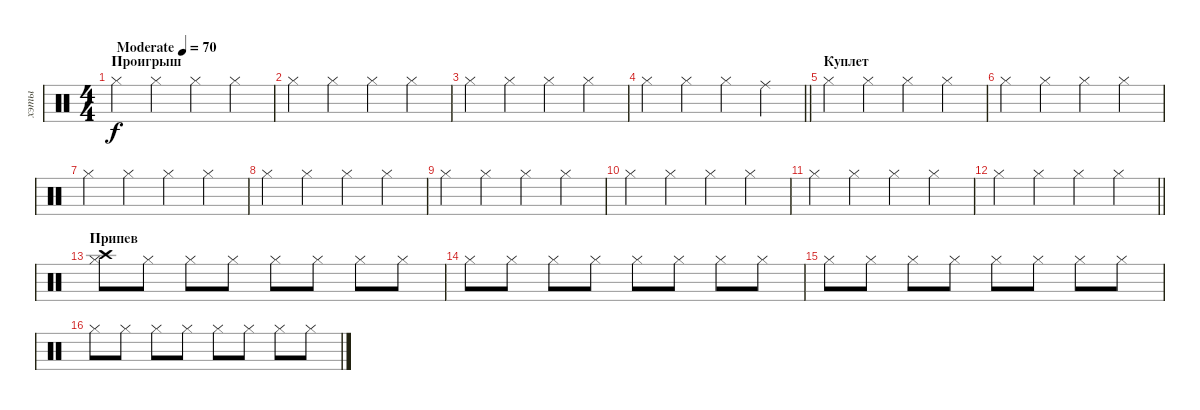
\track ("хэты" "хэты") {instrument percussion}
\staff {score}
\articulation defaults
\ts (4 4)
\section ("" "Проигрыш")
\tempo (70 "Moderate")
\clef neutral
\ks c "Hi-Hat (closed)".4{dy f} "Hi-Hat (closed)".4 "Hi-Hat (closed)".4 "Hi-Hat (closed)".4
|
"Hi-Hat (closed)".4 "Hi-Hat (closed)".4 "Hi-Hat (closed)".4 "Hi-Hat (closed)".4 |
"Hi-Hat (closed)".4 "Hi-Hat (closed)".4 "Hi-Hat (closed)".4 "Hi-Hat (closed)".4 |
\barLineRight lightlight "Hi-Hat (closed)".4 "Hi-Hat (closed)".4 "Hi-Hat (closed)".4 "Ride (middle)".4
|
\section ("" "Куплет")
"Hi-Hat (closed)".4 "Hi-Hat (closed)".4 "Hi-Hat (closed)".4 "Hi-Hat (closed)".4 |
"Hi-Hat (closed)".4 "Hi-Hat (closed)".4 "Hi-Hat (closed)".4 "Hi-Hat (closed)".4 |
"Hi-Hat (closed)".4 "Hi-Hat (closed)".4 "Hi-Hat (closed)".4 "Hi-Hat (closed)".4 |
"Hi-Hat (closed)".4 "Hi-Hat (closed)".4 "Hi-Hat (closed)".4 "Hi-Hat (closed)".4 |
"Hi-Hat (closed)".4 "Hi-Hat (closed)".4 "Hi-Hat (closed)".4 "Hi-Hat (closed)".4 |
"Hi-Hat (closed)".4 "Hi-Hat (closed)".4 "Hi-Hat (closed)".4 "Hi-Hat (closed)".4 |
"Hi-Hat (closed)".4 "Hi-Hat (closed)".4 "Hi-Hat (closed)".4 "Hi-Hat (closed)".4 |
\barLineRight lightlight "Hi-Hat (closed)".4 "Hi-Hat (closed)".4 "Hi-Hat (closed)".4 "Hi-Hat (closed)".4
|
\section ("" "Припев")
("Crash high (hit)" "Hi-Hat (closed)").8 "Hi-Hat (closed)".8 "Hi-Hat (closed)".8 "Hi-Hat (closed)".8 "Hi-Hat (closed)".8 "Hi-Hat (closed)".8 "Hi-Hat (closed)".8 "Hi-Hat (closed)".8 |
"Hi-Hat (closed)".8 "Hi-Hat (closed)".8 "Hi-Hat (closed)".8 "Hi-Hat (closed)".8 "Hi-Hat (closed)".8 "Hi-Hat (closed)".8 "Hi-Hat (closed)".8 "Hi-Hat (closed)".8 |
"Hi-Hat (closed)".8 "Hi-Hat (closed)".8 "Hi-Hat (closed)".8 "Hi-Hat (closed)".8 "Hi-Hat (closed)".8 "Hi-Hat (closed)".8 "Hi-Hat (closed)".8 "Hi-Hat (closed)".8 |
"Hi-Hat (closed)".8 "Hi-Hat (closed)".8 "Hi-Hat (closed)".8 "Hi-Hat (closed)".8 "Hi-Hat (closed)".8 "Hi-Hat (closed)".8 "Hi-Hat (closed)".8 "Hi-Hat (closed)".8
